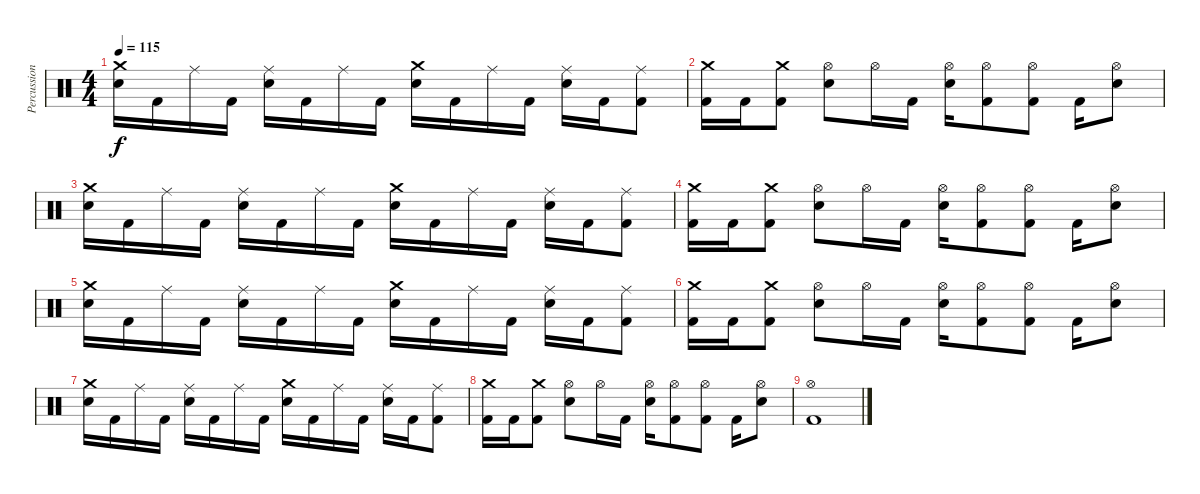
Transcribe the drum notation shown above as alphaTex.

\track ("Percussion" "Percussion") {instrument percussion}
\staff {score}
\articulation defaults
\ts (4 4)
\tempo 115
\clef neutral
\ks c
("Crash medium (hit)" "Snare (hit) 2").16{dy f} "Kick (hit) 2".16 "Ride (middle)".16 "Kick (hit) 2".16 ("Ride (middle)" "Snare (hit) 2").16 "Kick (hit) 2".16 "Ride (middle)".16 "Kick (hit) 2".16 ("Crash medium (hit)" "Snare (hit) 2").16 "Kick (hit) 2".16 "Ride (middle)".16 "Kick (hit) 2".16 ("Ride (middle)" "Snare (hit) 2").16 "Kick (hit) 2".16 ("Ride (middle)" "Kick (hit) 2").8 |
("Crash medium (hit)" "Kick (hit) 2").16 "Kick (hit) 2".16 ("Crash medium (hit)" "Kick (hit) 2").8 ("Hi-Hat (open)" "Snare (hit) 2").8 "Hi-Hat (open)".16 "Kick (hit) 2".16 ("Hi-Hat (open)" "Snare (hit) 2").16 ("Hi-Hat (open)" "Kick (hit) 2").8 ("Hi-Hat (open)" "Kick (hit) 2").8 "Kick (hit) 2".16 ("Hi-Hat (open)" "Snare (hit) 2").8 |
("Crash medium (hit)" "Snare (hit) 2").16 "Kick (hit) 2".16 "Ride (middle)".16 "Kick (hit) 2".16 ("Ride (middle)" "Snare (hit) 2").16 "Kick (hit) 2".16 "Ride (middle)".16 "Kick (hit) 2".16 ("Crash medium (hit)" "Snare (hit) 2").16 "Kick (hit) 2".16 "Ride (middle)".16 "Kick (hit) 2".16 ("Ride (middle)" "Snare (hit) 2").16 "Kick (hit) 2".16 ("Ride (middle)" "Kick (hit) 2").8 |
("Crash medium (hit)" "Kick (hit) 2").16 "Kick (hit) 2".16 ("Crash medium (hit)" "Kick (hit) 2").8 ("Hi-Hat (open)" "Snare (hit) 2").8 "Hi-Hat (open)".16 "Kick (hit) 2".16 ("Hi-Hat (open)" "Snare (hit) 2").16 ("Hi-Hat (open)" "Kick (hit) 2").8 ("Hi-Hat (open)" "Kick (hit) 2").8 "Kick (hit) 2".16 ("Hi-Hat (open)" "Snare (hit) 2").8 |
("Crash medium (hit)" "Snare (hit) 2").16 "Kick (hit) 2".16 "Ride (middle)".16 "Kick (hit) 2".16 ("Ride (middle)" "Snare (hit) 2").16 "Kick (hit) 2".16 "Ride (middle)".16 "Kick (hit) 2".16 ("Crash medium (hit)" "Snare (hit) 2").16 "Kick (hit) 2".16 "Ride (middle)".16 "Kick (hit) 2".16 ("Ride (middle)" "Snare (hit) 2").16 "Kick (hit) 2".16 ("Ride (middle)" "Kick (hit) 2").8 |
("Crash medium (hit)" "Kick (hit) 2").16 "Kick (hit) 2".16 ("Crash medium (hit)" "Kick (hit) 2").8 ("Hi-Hat (open)" "Snare (hit) 2").8 "Hi-Hat (open)".16 "Kick (hit) 2".16 ("Hi-Hat (open)" "Snare (hit) 2").16 ("Hi-Hat (open)" "Kick (hit) 2").8 ("Hi-Hat (open)" "Kick (hit) 2").8 "Kick (hit) 2".16 ("Hi-Hat (open)" "Snare (hit) 2").8 |
("Crash medium (hit)" "Snare (hit) 2").16 "Kick (hit) 2".16 "Ride (middle)".16 "Kick (hit) 2".16 ("Ride (middle)" "Snare (hit) 2").16 "Kick (hit) 2".16 "Ride (middle)".16 "Kick (hit) 2".16 ("Crash medium (hit)" "Snare (hit) 2").16 "Kick (hit) 2".16 "Ride (middle)".16 "Kick (hit) 2".16 ("Ride (middle)" "Snare (hit) 2").16 "Kick (hit) 2".16 ("Ride (middle)" "Kick (hit) 2").8 |
("Crash medium (hit)" "Kick (hit) 2").16 "Kick (hit) 2".16 ("Crash medium (hit)" "Kick (hit) 2").8 ("Hi-Hat (open)" "Snare (hit) 2").8 "Hi-Hat (open)".16 "Kick (hit) 2".16 ("Hi-Hat (open)" "Snare (hit) 2").16 ("Hi-Hat (open)" "Kick (hit) 2").8 ("Hi-Hat (open)" "Kick (hit) 2").8 "Kick (hit) 2".16 ("Hi-Hat (open)" "Snare (hit) 2").8 |
("Hi-Hat (open)" "Kick (hit) 2").1
